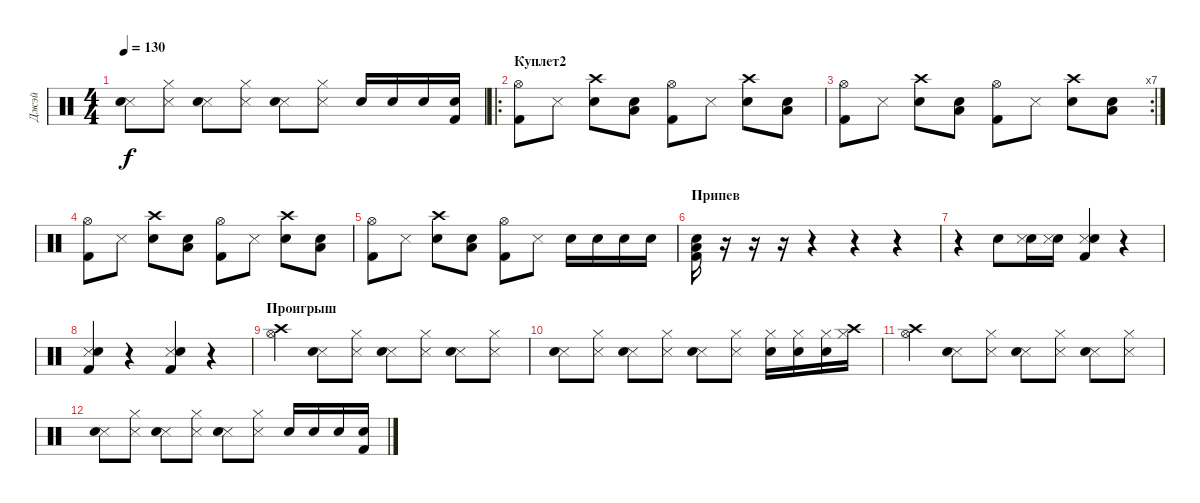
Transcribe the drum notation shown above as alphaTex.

\track ("Джэй" "Джэй") {instrument percussion}
\staff {score}
\articulation defaults
\ts (4 4)
\tempo 130
\clef neutral
\ks c
("Snare (side stick) 3" "Snare (hit) 2").8{dy f} ("Snare (side stick) 3" "Hi-Hat (closed)").8 ("Snare (side stick) 3" "Snare (hit) 2").8 ("Snare (side stick) 3" "Hi-Hat (closed)").8 ("Snare (side stick) 3" "Snare (hit) 2").8 ("Snare (side stick) 3" "Hi-Hat (closed)").8 "Snare (hit) 2".16 "Snare (hit) 2".16 "Snare (hit) 2".16 ("Snare (hit) 2" "Kick (hit) 2").16 |
\ro
\section ("" "Куплет2")
("Hi-Hat (open)" "Kick (hit) 2").8 "Snare (side stick) 3".8 ("Crash high (hit)" "Snare (hit) 2").8 ("Low Tom (hit)" "Snare (hit) 2").8 ("Hi-Hat (open)" "Kick (hit) 2").8 "Snare (side stick) 3".8 ("Crash high (hit)" "Snare (hit) 2").8 ("Low Tom (hit)" "Snare (hit) 2").8 |
\rc 7
("Hi-Hat (open)" "Kick (hit) 2").8 "Snare (side stick) 3".8 ("Crash high (hit)" "Snare (hit) 2").8 ("Low Tom (hit)" "Snare (hit) 2").8 ("Hi-Hat (open)" "Kick (hit) 2").8 "Snare (side stick) 3".8 ("Crash high (hit)" "Snare (hit) 2").8 ("Low Tom (hit)" "Snare (hit) 2").8 |
("Hi-Hat (open)" "Kick (hit) 2").8 "Snare (side stick) 3".8 ("Crash high (hit)" "Snare (hit) 2").8 ("Low Tom (hit)" "Snare (hit) 2").8 ("Hi-Hat (open)" "Kick (hit) 2").8 "Snare (side stick) 3".8 ("Crash high (hit)" "Snare (hit) 2").8 ("Low Tom (hit)" "Snare (hit) 2").8 |
("Hi-Hat (open)" "Kick (hit) 2").8 "Snare (side stick) 3".8 ("Crash high (hit)" "Snare (hit) 2").8 ("Low Tom (hit)" "Snare (hit) 2").8 ("Hi-Hat (open)" "Kick (hit) 2").8 "Snare (side stick) 3".8 "Snare (hit) 2".16 "Snare (hit) 2".16 "Snare (hit) 2".16 "Snare (hit) 2".16 |
\section ("" "Припев")
("Low Tom (hit)" "Kick (hit) 2" "Snare (hit) 2").16 r.16 r.16 r.16 r.4 r.4 r.4 |
r.4 "Snare (hit) 2".8 ("Snare (hit) 2" "Snare (side stick) 3").16 ("Snare (hit) 2" "Snare (side stick) 3").16 ("Snare (side stick) 3" "Kick (hit) 2" "Snare (hit) 2").4 r.4 |
("Snare (side stick) 3" "Kick (hit) 2" "Snare (hit) 2").4 r.4 ("Snare (side stick) 3" "Kick (hit) 2" "Snare (hit) 2").4 r.4 |
\section ("" "Проигрыш")
("Crash high (hit)" "Hi-Hat (open)").4 ("Snare (side stick) 3" "Snare (hit) 2").8 ("Snare (side stick) 3" "Hi-Hat (closed)").8 ("Snare (side stick) 3" "Snare (hit) 2").8 ("Snare (side stick) 3" "Hi-Hat (closed)").8 ("Snare (side stick) 3" "Snare (hit) 2").8 ("Snare (side stick) 3" "Hi-Hat (closed)").8 |
("Snare (side stick) 3" "Snare (hit) 2").8 ("Snare (side stick) 3" "Hi-Hat (closed)").8 ("Snare (side stick) 3" "Snare (hit) 2").8 ("Snare (side stick) 3" "Hi-Hat (closed)").8 ("Snare (side stick) 3" "Snare (hit) 2").8 ("Snare (side stick) 3" "Hi-Hat (closed)").8 ("Snare (hit) 2" "Hi-Hat (closed)").16 ("Snare (hit) 2" "Hi-Hat (closed)").16 ("Snare (hit) 2" "Hi-Hat (closed)").16 ("Crash high (hit)" "Hi-Hat (closed)").16 |
("Crash high (hit)" "Hi-Hat (open)").4 ("Snare (side stick) 3" "Snare (hit) 2").8 ("Snare (side stick) 3" "Hi-Hat (closed)").8 ("Snare (side stick) 3" "Snare (hit) 2").8 ("Snare (side stick) 3" "Hi-Hat (closed)").8 ("Snare (side stick) 3" "Snare (hit) 2").8 ("Snare (side stick) 3" "Hi-Hat (closed)").8 |
("Snare (side stick) 3" "Snare (hit) 2").8 ("Snare (side stick) 3" "Hi-Hat (closed)").8 ("Snare (side stick) 3" "Snare (hit) 2").8 ("Snare (side stick) 3" "Hi-Hat (closed)").8 ("Snare (side stick) 3" "Snare (hit) 2").8 ("Snare (side stick) 3" "Hi-Hat (closed)").8 "Snare (hit) 2".16 "Snare (hit) 2".16 "Snare (hit) 2".16 ("Snare (hit) 2" "Kick (hit) 2").16
